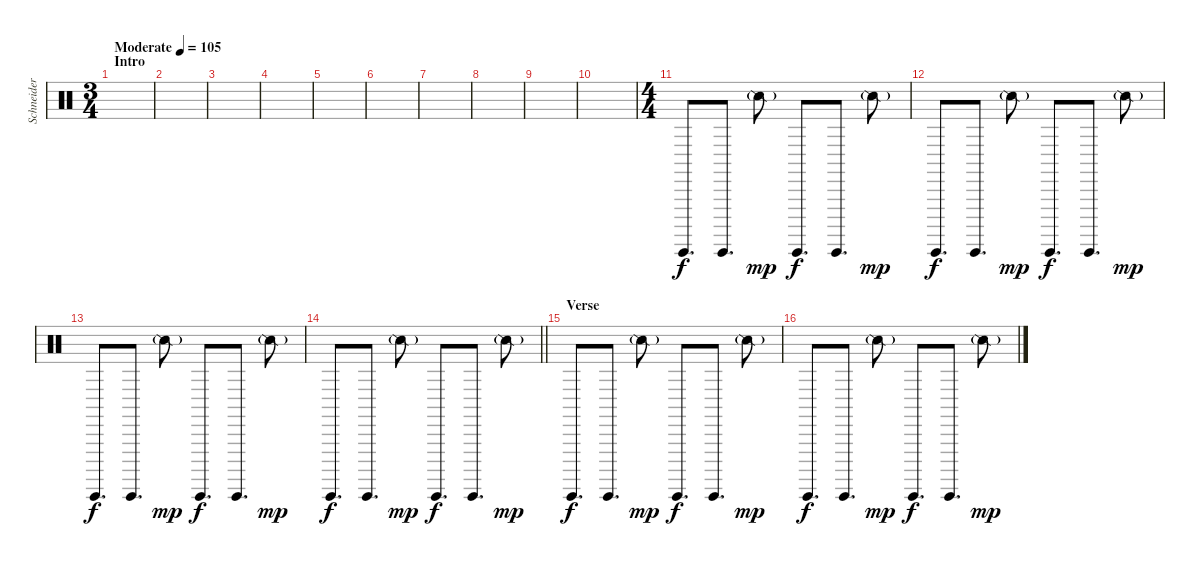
\track ("Schneider" "Schneider") {instrument percussion}
\staff {score}
\articulation defaults
\ts (3 4)
\section ("" "Intro")
\tempo (105 "Moderate")
\clef neutral
\ks c
|
|
|
|
|
|
|
|
|
|
\ts (4 4)
"Guiro (hit)".8{d} "Guiro (hit)".8{d} "Snare (side stick) 2"{g}.8{dy mp} "Guiro (hit)".8{d dy f} "Guiro (hit)".8{d} "Snare (side stick) 2"{g}.8{dy mp} |
"Guiro (hit)".8{d dy f} "Guiro (hit)".8{d} "Snare (side stick) 2"{g}.8{dy mp} "Guiro (hit)".8{d dy f} "Guiro (hit)".8{d} "Snare (side stick) 2"{g}.8{dy mp} |
"Guiro (hit)".8{d dy f} "Guiro (hit)".8{d} "Snare (side stick) 2"{g}.8{dy mp} "Guiro (hit)".8{d dy f} "Guiro (hit)".8{d} "Snare (side stick) 2"{g}.8{dy mp} |
\barLineRight lightlight "Guiro (hit)".8{d dy f} "Guiro (hit)".8{d} "Snare (side stick) 2"{g}.8{dy mp} "Guiro (hit)".8{d dy f} "Guiro (hit)".8{d} "Snare (side stick) 2"{g}.8{dy mp}
|
\section ("" "Verse")
"Guiro (hit)".8{d dy f} "Guiro (hit)".8{d} "Snare (side stick) 2"{g}.8{dy mp} "Guiro (hit)".8{d dy f} "Guiro (hit)".8{d} "Snare (side stick) 2"{g}.8{dy mp} |
"Guiro (hit)".8{d dy f} "Guiro (hit)".8{d} "Snare (side stick) 2"{g}.8{dy mp} "Guiro (hit)".8{d dy f} "Guiro (hit)".8{d} "Snare (side stick) 2"{g}.8{dy mp}
